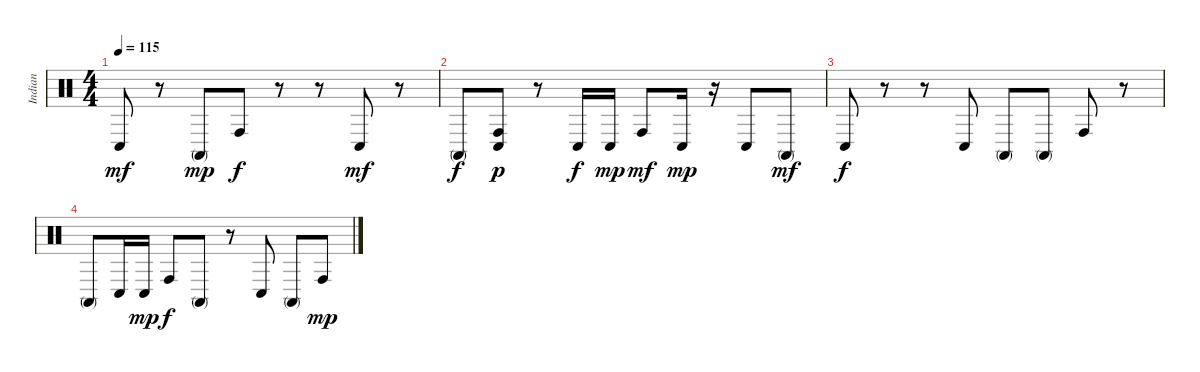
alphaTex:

\track ("Indian" "Indian") {instrument percussion}
\staff {score}
\articulation defaults
\ts (4 4)
\tempo 115
\clef neutral
\ks c "Conga low (hit)".8{dy mf volume 3}
r.8 "Conga high (mute)".8{dy mp} "Conga high (hit)".8{dy f} r.8 r.8 "Conga low (hit)".8{dy mf} r.8 |
"Conga high (mute)".8{dy f} ("Conga high (hit)" "Conga low (hit)").8{dy p} r.8 "Conga low (hit)".16{dy f} "Conga low (hit)".16{dy mp} "Conga high (hit)".8{dy mf} "Conga low (hit)".16{dy mp} r.16 "Conga low (hit)".8 "Conga high (mute)".8{dy mf} |
"Conga low (hit)".8{dy f} r.8 r.8 "Conga low (hit)".8 "Conga high (mute)".8 "Conga high (mute)".8 "Conga high (hit)".8 r.8 |
"Conga high (mute)".8 "Conga low (hit)".16 "Conga low (hit)".16{dy mp} "Conga high (hit)".8{dy f} "Conga high (mute)".8 r.8 "Conga low (hit)".8 "Conga high (mute)".8 "Conga high (hit)".8{dy mp}
